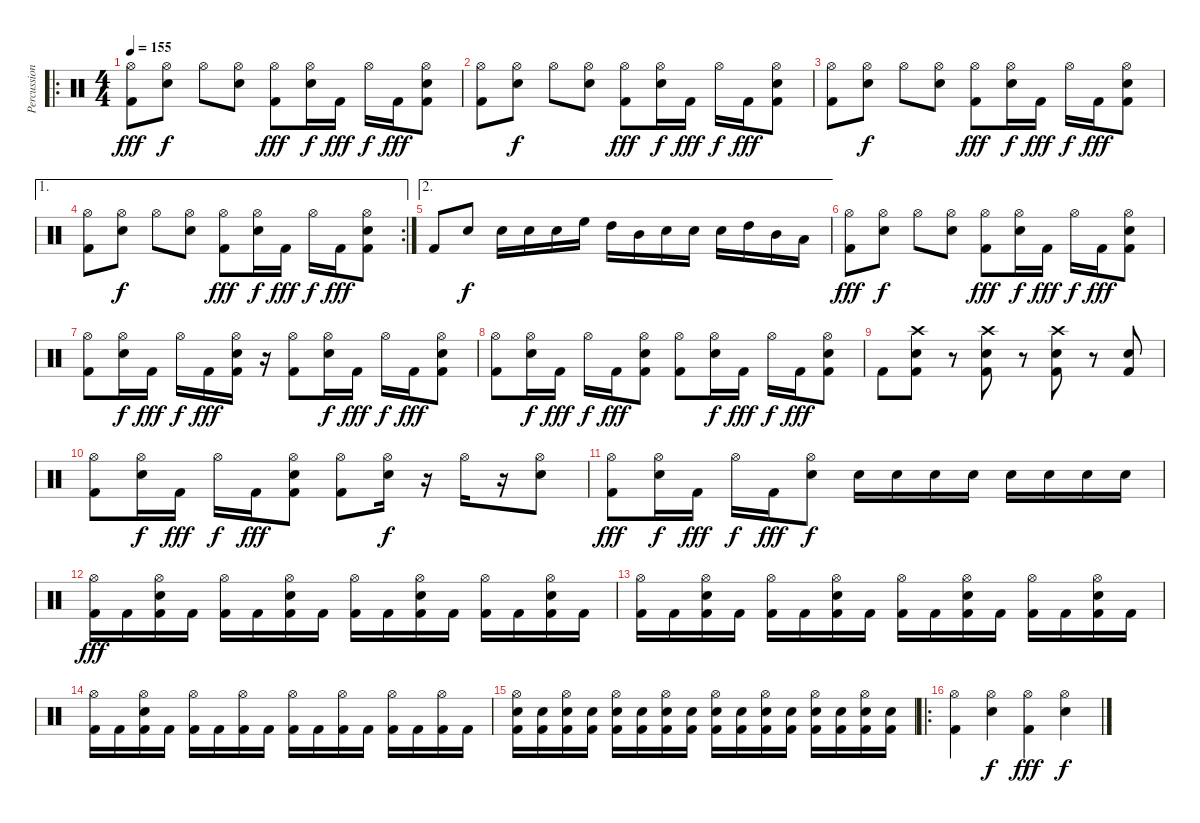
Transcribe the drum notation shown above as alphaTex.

\track ("Percussion" "Percussion") {instrument percussion}
\staff {score}
\articulation defaults
\ro
\ts (4 4)
\tempo 155
\clef neutral
\ks c
("Hi-Hat (open)" "Kick (hit) 2").8{dy fff} ("Hi-Hat (open)" "Snare (hit) 2").8{dy f} "Hi-Hat (open)".8 ("Hi-Hat (open)" "Snare (hit) 2").8 ("Hi-Hat (open)" "Kick (hit) 2").8{dy fff} ("Hi-Hat (open)" "Snare (hit) 2").16{dy f} "Kick (hit) 2".16{dy fff} "Hi-Hat (open)".16{dy f} "Kick (hit) 2".16{dy fff} ("Hi-Hat (open)" "Snare (hit) 2" "Kick (hit) 2").8 |
("Hi-Hat (open)" "Kick (hit) 2").8 ("Hi-Hat (open)" "Snare (hit) 2").8{dy f} "Hi-Hat (open)".8 ("Hi-Hat (open)" "Snare (hit) 2").8 ("Hi-Hat (open)" "Kick (hit) 2").8{dy fff} ("Hi-Hat (open)" "Snare (hit) 2").16{dy f} "Kick (hit) 2".16{dy fff} "Hi-Hat (open)".16{dy f} "Kick (hit) 2".16{dy fff} ("Hi-Hat (open)" "Snare (hit) 2" "Kick (hit) 2").8 |
("Hi-Hat (open)" "Kick (hit) 2").8 ("Hi-Hat (open)" "Snare (hit) 2").8{dy f} "Hi-Hat (open)".8 ("Hi-Hat (open)" "Snare (hit) 2").8 ("Hi-Hat (open)" "Kick (hit) 2").8{dy fff} ("Hi-Hat (open)" "Snare (hit) 2").16{dy f} "Kick (hit) 2".16{dy fff} "Hi-Hat (open)".16{dy f} "Kick (hit) 2".16{dy fff} ("Hi-Hat (open)" "Snare (hit) 2" "Kick (hit) 2").8 |
\ae 1
\rc 2
("Hi-Hat (open)" "Kick (hit) 2").8 ("Hi-Hat (open)" "Snare (hit) 2").8{dy f} "Hi-Hat (open)".8 ("Hi-Hat (open)" "Snare (hit) 2").8 ("Hi-Hat (open)" "Kick (hit) 2").8{dy fff} ("Hi-Hat (open)" "Snare (hit) 2").16{dy f} "Kick (hit) 2".16{dy fff} "Hi-Hat (open)".16{dy f} "Kick (hit) 2".16{dy fff} ("Hi-Hat (open)" "Snare (hit) 2" "Kick (hit) 2").8 |
\ae 2 "Kick (hit) 2".8 "Snare (hit) 2".8{dy f} "Snare (hit) 2".16 "Snare (hit) 2".16 "Snare (hit) 2".16 "High Floor Tom (hit)".16 "High Tom (hit)".16 "Mid Tom (hit)".16 "Snare (hit) 2".16 "Snare (hit) 2".16 "Snare (hit) 2".16 "High Tom (hit)".16 "Mid Tom (hit)".16 "Low Tom (hit)".16
|
("Hi-Hat (open)" "Kick (hit) 2").8{dy fff} ("Hi-Hat (open)" "Snare (hit) 2").8{dy f} "Hi-Hat (open)".8 ("Hi-Hat (open)" "Snare (hit) 2").8 ("Hi-Hat (open)" "Kick (hit) 2").8{dy fff} ("Hi-Hat (open)" "Snare (hit) 2").16{dy f} "Kick (hit) 2".16{dy fff} "Hi-Hat (open)".16{dy f} "Kick (hit) 2".16{dy fff} ("Hi-Hat (open)" "Snare (hit) 2" "Kick (hit) 2").8 |
("Hi-Hat (open)" "Kick (hit) 2").8 ("Hi-Hat (open)" "Snare (hit) 2").16{dy f} "Kick (hit) 2".16{dy fff} "Hi-Hat (open)".16{dy f} "Kick (hit) 2".16{dy fff} ("Hi-Hat (open)" "Snare (hit) 2" "Kick (hit) 2").16 r.16 ("Hi-Hat (open)" "Kick (hit) 2").8 ("Hi-Hat (open)" "Snare (hit) 2").16{dy f} "Kick (hit) 2".16{dy fff} "Hi-Hat (open)".16{dy f} "Kick (hit) 2".16{dy fff} ("Hi-Hat (open)" "Snare (hit) 2" "Kick (hit) 2").8 |
("Hi-Hat (open)" "Kick (hit) 2").8 ("Hi-Hat (open)" "Snare (hit) 2").16{dy f} "Kick (hit) 2".16{dy fff} "Hi-Hat (open)".16{dy f} "Kick (hit) 2".16{dy fff} ("Hi-Hat (open)" "Snare (hit) 2" "Kick (hit) 2").8 ("Hi-Hat (open)" "Kick (hit) 2").8 ("Hi-Hat (open)" "Snare (hit) 2").16{dy f} "Kick (hit) 2".16{dy fff} "Hi-Hat (open)".16{dy f} "Kick (hit) 2".16{dy fff} ("Hi-Hat (open)" "Snare (hit) 2" "Kick (hit) 2").8 |
"Kick (hit) 2".8 ("Crash high (hit)" "Snare (hit) 2" "Kick (hit) 2").8 r.8 ("Crash high (hit)" "Snare (hit) 2" "Kick (hit) 2").8 r.8 ("Crash high (hit)" "Snare (hit) 2" "Kick (hit) 2").8 r.8 ("Snare (hit) 2" "Kick (hit) 2").8 |
("Hi-Hat (open)" "Kick (hit) 2").8 ("Hi-Hat (open)" "Snare (hit) 2").16{dy f} "Kick (hit) 2".16{dy fff} "Hi-Hat (open)".16{dy f} "Kick (hit) 2".16{dy fff} ("Hi-Hat (open)" "Snare (hit) 2" "Kick (hit) 2").8 ("Hi-Hat (open)" "Kick (hit) 2").8 ("Hi-Hat (open)" "Snare (hit) 2").16{dy f} r.16 "Hi-Hat (open)".16 r.16 ("Hi-Hat (open)" "Snare (hit) 2").8 |
("Hi-Hat (open)" "Kick (hit) 2").8{dy fff} ("Hi-Hat (open)" "Snare (hit) 2").16{dy f} "Kick (hit) 2".16{dy fff} "Hi-Hat (open)".16{dy f} "Kick (hit) 2".16{dy fff} ("Hi-Hat (open)" "Snare (hit) 2").8{dy f} "Snare (hit) 2".16 "Snare (hit) 2".16 "Snare (hit) 2".16 "Snare (hit) 2".16 "Snare (hit) 2".16 "Snare (hit) 2".16 "Snare (hit) 2".16 "Snare (hit) 2".16 |
("Hi-Hat (open)" "Kick (hit) 2").16{dy fff} "Kick (hit) 2".16 ("Hi-Hat (open)" "Snare (hit) 2" "Kick (hit) 2").16 "Kick (hit) 2".16 ("Hi-Hat (open)" "Kick (hit) 2").16 "Kick (hit) 2".16 ("Hi-Hat (open)" "Snare (hit) 2" "Kick (hit) 2").16 "Kick (hit) 2".16 ("Hi-Hat (open)" "Kick (hit) 2").16 "Kick (hit) 2".16 ("Hi-Hat (open)" "Snare (hit) 2" "Kick (hit) 2").16 "Kick (hit) 2".16 ("Hi-Hat (open)" "Kick (hit) 2").16 "Kick (hit) 2".16 ("Hi-Hat (open)" "Snare (hit) 2" "Kick (hit) 2").16 "Kick (hit) 2".16 |
("Hi-Hat (open)" "Kick (hit) 2").16 "Kick (hit) 2".16 ("Hi-Hat (open)" "Snare (hit) 2" "Kick (hit) 2").16 "Kick (hit) 2".16 ("Hi-Hat (open)" "Kick (hit) 2").16 "Kick (hit) 2".16 ("Hi-Hat (open)" "Snare (hit) 2" "Kick (hit) 2").16 "Kick (hit) 2".16 ("Hi-Hat (open)" "Kick (hit) 2").16 "Kick (hit) 2".16 ("Hi-Hat (open)" "Snare (hit) 2" "Kick (hit) 2").16 "Kick (hit) 2".16 ("Hi-Hat (open)" "Kick (hit) 2").16 "Kick (hit) 2".16 ("Hi-Hat (open)" "Snare (hit) 2" "Kick (hit) 2").16 "Kick (hit) 2".16 |
("Hi-Hat (open)" "Kick (hit) 2").16 "Kick (hit) 2".16 ("Hi-Hat (open)" "Snare (hit) 2" "Kick (hit) 2").16 "Kick (hit) 2".16 ("Hi-Hat (open)" "Kick (hit) 2").16 "Kick (hit) 2".16 ("Hi-Hat (open)" "Kick (hit) 2").16 "Kick (hit) 2".16 ("Hi-Hat (open)" "Kick (hit) 2").16 "Kick (hit) 2".16 ("Hi-Hat (open)" "Kick (hit) 2").16 "Kick (hit) 2".16 ("Hi-Hat (open)" "Kick (hit) 2").16 "Kick (hit) 2".16 ("Hi-Hat (open)" "Kick (hit) 2").16 "Kick (hit) 2".16 |
("Hi-Hat (open)" "Snare (hit) 2" "Kick (hit) 2").16 ("Snare (hit) 2" "Kick (hit) 2").16 ("Hi-Hat (open)" "Snare (hit) 2" "Kick (hit) 2").16 ("Snare (hit) 2" "Kick (hit) 2").16 ("Hi-Hat (open)" "Snare (hit) 2" "Kick (hit) 2").16 ("Snare (hit) 2" "Kick (hit) 2").16 ("Hi-Hat (open)" "Snare (hit) 2" "Kick (hit) 2").16 ("Snare (hit) 2" "Kick (hit) 2").16 ("Hi-Hat (open)" "Snare (hit) 2" "Kick (hit) 2").16 ("Snare (hit) 2" "Kick (hit) 2").16 ("Hi-Hat (open)" "Snare (hit) 2" "Kick (hit) 2").16 ("Snare (hit) 2" "Kick (hit) 2").16 ("Hi-Hat (open)" "Snare (hit) 2" "Kick (hit) 2").16 ("Snare (hit) 2" "Kick (hit) 2").16 ("Hi-Hat (open)" "Snare (hit) 2" "Kick (hit) 2").16 ("Snare (hit) 2" "Kick (hit) 2").16 |
\ro
("Hi-Hat (open)" "Kick (hit) 2").4 ("Hi-Hat (open)" "Snare (hit) 2").4{dy f} ("Hi-Hat (open)" "Kick (hit) 2").4{dy fff} ("Hi-Hat (open)" "Snare (hit) 2").4{dy f}
